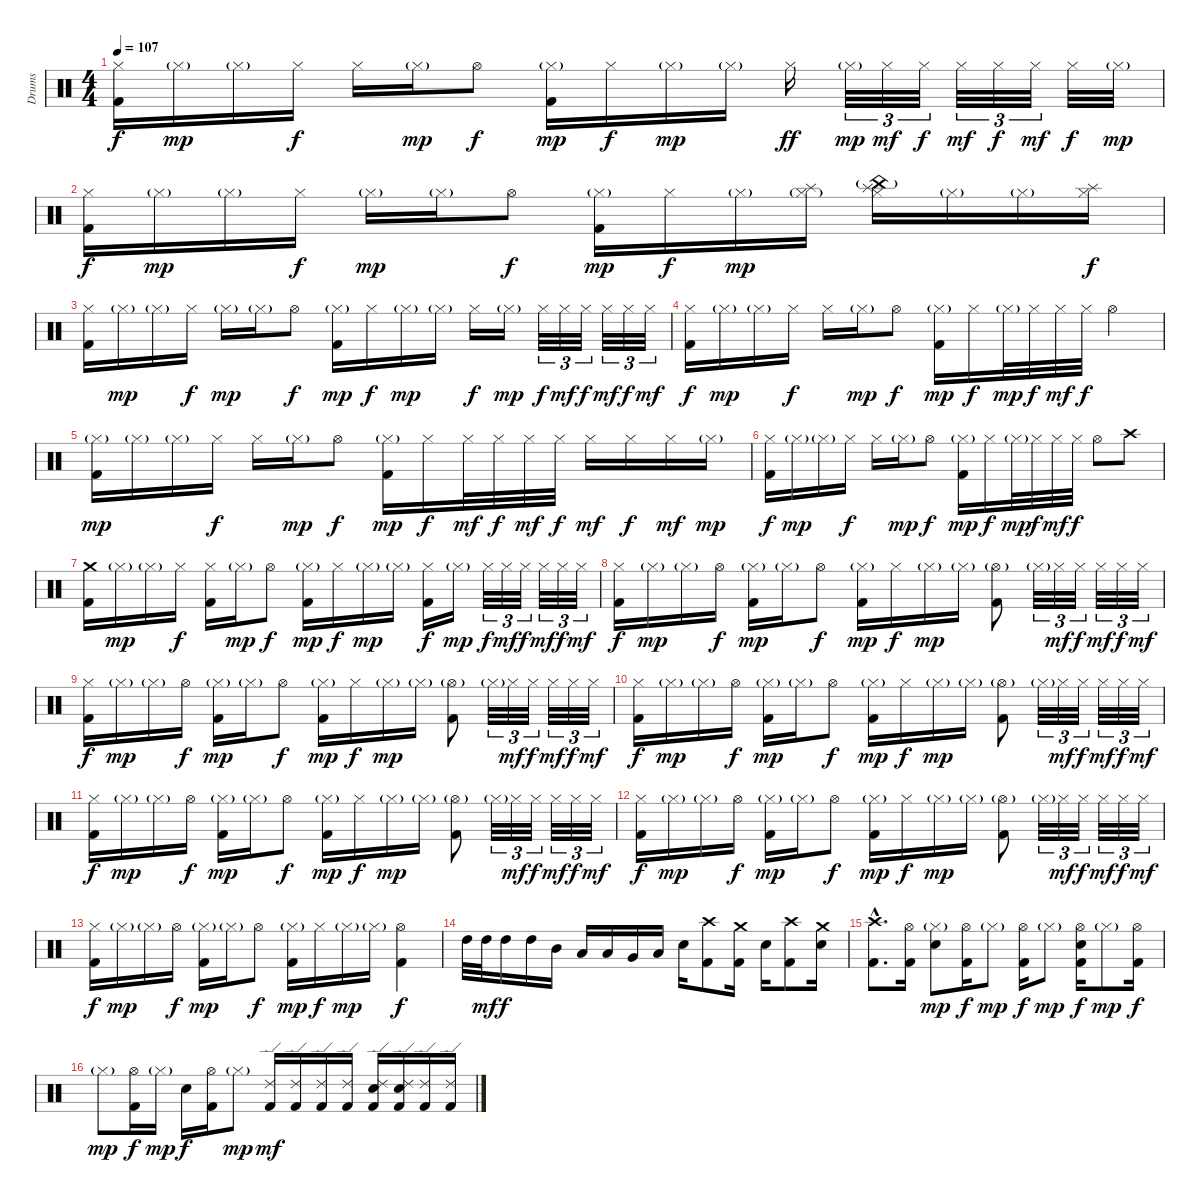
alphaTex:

\track ("Drums" "Drums") {instrument percussion}
\staff {score}
\articulation defaults
\ts (4 4)
\tempo 107
\clef neutral
\ks c
("Kick (hit) 2" "Hi-Hat (closed)").16{dy f} "Hi-Hat (closed)"{g}.16{dy mp} "Hi-Hat (closed)"{g}.16 "Hi-Hat (closed)".16{dy f} "Hi-Hat (closed)".16 "Hi-Hat (closed)"{g}.16{dy mp} "Hi-Hat (open)".8{dy f} ("Kick (hit) 2" "Hi-Hat (closed)"{g}).16{dy mp} "Hi-Hat (closed)".16{dy f} "Hi-Hat (closed)"{g}.16{dy mp} "Hi-Hat (closed)"{g}.16 "Hi-Hat (closed)".16{dy ff} "Hi-Hat (closed)"{g}.32{tu (3 2) dy mp} "Hi-Hat (closed)".32{tu (3 2) dy mf} "Hi-Hat (closed)".32{tu (3 2) dy f} "Hi-Hat (closed)".32{tu (3 2) dy mf} "Hi-Hat (closed)".32{tu (3 2) dy f} "Hi-Hat (closed)".32{tu (3 2) dy mf} "Hi-Hat (closed)".32{dy f} "Hi-Hat (closed)"{g}.32{dy mp} |
("Kick (hit) 2" "Hi-Hat (closed)").16{dy f} "Hi-Hat (closed)"{g}.16{dy mp} "Hi-Hat (closed)"{g}.16 "Hi-Hat (closed)".16{dy f} "Hi-Hat (closed)"{g}.16{dy mp} "Hi-Hat (closed)"{g}.16 "Hi-Hat (open)".8{dy f} ("Kick (hit) 2" "Hi-Hat (closed)"{g}).16{dy mp} "Hi-Hat (closed)".16{dy f} "Hi-Hat (closed)"{g}.16{dy mp} ("Hi-Hat (closed)"{g} "Splash (hit)").16 ("Hi-Hat (closed)" "Splash (hit)" "China (hit)"{g}).16 "Hi-Hat (closed)"{g}.16 "Hi-Hat (closed)"{g}.16 ("Hi-Hat (closed)" "Splash (hit)").16{dy f} |
("Kick (hit) 2" "Hi-Hat (closed)").16 "Hi-Hat (closed)"{g}.16{dy mp} "Hi-Hat (closed)"{g}.16 "Hi-Hat (closed)".16{dy f} "Hi-Hat (closed)"{g}.16{dy mp} "Hi-Hat (closed)"{g}.16 "Hi-Hat (open)".8{dy f} ("Kick (hit) 2" "Hi-Hat (closed)"{g}).16{dy mp} "Hi-Hat (closed)".16{dy f} "Hi-Hat (closed)"{g}.16{dy mp} "Hi-Hat (closed)"{g}.16 "Hi-Hat (closed)".16{dy f} "Hi-Hat (closed)"{g}.16{dy mp} "Hi-Hat (closed)".32{tu (3 2) dy f} "Hi-Hat (closed)".32{tu (3 2) dy mf} "Hi-Hat (closed)".32{tu (3 2) dy f} "Hi-Hat (closed)".32{tu (3 2) dy mf} "Hi-Hat (closed)".32{tu (3 2) dy f} "Hi-Hat (closed)".32{tu (3 2) dy mf} |
("Kick (hit) 2" "Hi-Hat (closed)").16{dy f} "Hi-Hat (closed)"{g}.16{dy mp} "Hi-Hat (closed)"{g}.16 "Hi-Hat (closed)".16{dy f} "Hi-Hat (closed)".16 "Hi-Hat (closed)"{g}.16{dy mp} "Hi-Hat (open)".8{dy f} ("Kick (hit) 2" "Hi-Hat (closed)"{g}).16{dy mp} "Hi-Hat (closed)".16{dy f} "Hi-Hat (closed)"{g}.32{dy mp} "Hi-Hat (closed)".32{dy f} "Hi-Hat (closed)".32{dy mf} "Hi-Hat (closed)".32{dy f} "Hi-Hat (open)".4 |
("Kick (hit) 2" "Hi-Hat (closed)"{g}).16{dy mp} "Hi-Hat (closed)"{g}.16 "Hi-Hat (closed)"{g}.16 "Hi-Hat (closed)".16{dy f} "Hi-Hat (closed)".16 "Hi-Hat (closed)"{g}.16{dy mp} "Hi-Hat (open)".8{dy f} ("Kick (hit) 2" "Hi-Hat (closed)"{g}).16{dy mp} "Hi-Hat (closed)".16{dy f} "Hi-Hat (closed)".32{dy mf} "Hi-Hat (closed)".32{dy f} "Hi-Hat (closed)".32{dy mf} "Hi-Hat (closed)".32{dy f} "Hi-Hat (closed)".16{dy mf} "Hi-Hat (closed)".16{dy f} "Hi-Hat (closed)".16{dy mf} "Hi-Hat (closed)"{g}.16{dy mp} |
("Kick (hit) 2" "Hi-Hat (closed)").16{dy f} "Hi-Hat (closed)"{g}.16{dy mp} "Hi-Hat (closed)"{g}.16 "Hi-Hat (closed)".16{dy f} "Hi-Hat (closed)".16 "Hi-Hat (closed)"{g}.16{dy mp} "Hi-Hat (open)".8{dy f} ("Kick (hit) 2" "Hi-Hat (closed)"{g}).16{dy mp} "Hi-Hat (closed)".16{dy f} "Hi-Hat (closed)"{g}.32{dy mp} "Hi-Hat (closed)".32{dy f} "Hi-Hat (closed)".32{dy mf} "Hi-Hat (closed)".32{dy f} "Hi-Hat (open)".8 "Crash high (hit)".8 |
("Kick (hit) 2" "Crash medium (hit)").16 "Hi-Hat (closed)"{g}.16{dy mp} "Hi-Hat (closed)"{g}.16 "Hi-Hat (closed)".16{dy f} ("Kick (hit) 2" "Hi-Hat (closed)").16 "Hi-Hat (closed)"{g}.16{dy mp} "Hi-Hat (open)".8{dy f} ("Kick (hit) 2" "Hi-Hat (closed)"{g}).16{dy mp} "Hi-Hat (closed)".16{dy f} "Hi-Hat (closed)"{g}.16{dy mp} "Hi-Hat (closed)"{g}.16 ("Kick (hit) 2" "Hi-Hat (closed)").16{dy f} "Hi-Hat (closed)"{g}.16{dy mp} "Hi-Hat (closed)".32{tu (3 2) dy f} "Hi-Hat (closed)".32{tu (3 2) dy mf} "Hi-Hat (closed)".32{tu (3 2) dy f} "Hi-Hat (closed)".32{tu (3 2) dy mf} "Hi-Hat (closed)".32{tu (3 2) dy f} "Hi-Hat (closed)".32{tu (3 2) dy mf} |
("Kick (hit) 2" "Hi-Hat (closed)").16{dy f} "Hi-Hat (closed)"{g}.16{dy mp} "Hi-Hat (closed)"{g}.16 "Hi-Hat (open)".16{dy f} ("Kick (hit) 2" "Hi-Hat (closed)"{g}).16{dy mp} "Hi-Hat (closed)"{g}.16 "Hi-Hat (open)".8{dy f} ("Kick (hit) 2" "Hi-Hat (closed)"{g}).16{dy mp} "Hi-Hat (closed)".16{dy f} "Hi-Hat (closed)"{g}.16{dy mp} "Hi-Hat (closed)"{g}.16 ("Kick (hit) 2" "Hi-Hat (open)"{g}).8 "Hi-Hat (closed)"{g}.32{tu (3 2)} "Hi-Hat (closed)".32{tu (3 2) dy mf} "Hi-Hat (closed)".32{tu (3 2) dy f} "Hi-Hat (closed)".32{tu (3 2) dy mf} "Hi-Hat (closed)".32{tu (3 2) dy f} "Hi-Hat (closed)".32{tu (3 2) dy mf} |
("Kick (hit) 2" "Hi-Hat (closed)").16{dy f} "Hi-Hat (closed)"{g}.16{dy mp} "Hi-Hat (closed)"{g}.16 "Hi-Hat (open)".16{dy f} ("Kick (hit) 2" "Hi-Hat (closed)"{g}).16{dy mp} "Hi-Hat (closed)"{g}.16 "Hi-Hat (open)".8{dy f} ("Kick (hit) 2" "Hi-Hat (closed)"{g}).16{dy mp} "Hi-Hat (closed)".16{dy f} "Hi-Hat (closed)"{g}.16{dy mp} "Hi-Hat (closed)"{g}.16 ("Kick (hit) 2" "Hi-Hat (open)"{g}).8 "Hi-Hat (closed)"{g}.32{tu (3 2)} "Hi-Hat (closed)".32{tu (3 2) dy mf} "Hi-Hat (closed)".32{tu (3 2) dy f} "Hi-Hat (closed)".32{tu (3 2) dy mf} "Hi-Hat (closed)".32{tu (3 2) dy f} "Hi-Hat (closed)".32{tu (3 2) dy mf} |
("Kick (hit) 2" "Hi-Hat (closed)").16{dy f} "Hi-Hat (closed)"{g}.16{dy mp} "Hi-Hat (closed)"{g}.16 "Hi-Hat (open)".16{dy f} ("Kick (hit) 2" "Hi-Hat (closed)"{g}).16{dy mp} "Hi-Hat (closed)"{g}.16 "Hi-Hat (open)".8{dy f} ("Kick (hit) 2" "Hi-Hat (closed)"{g}).16{dy mp} "Hi-Hat (closed)".16{dy f} "Hi-Hat (closed)"{g}.16{dy mp} "Hi-Hat (closed)"{g}.16 ("Kick (hit) 2" "Hi-Hat (open)"{g}).8 "Hi-Hat (closed)"{g}.32{tu (3 2)} "Hi-Hat (closed)".32{tu (3 2) dy mf} "Hi-Hat (closed)".32{tu (3 2) dy f} "Hi-Hat (closed)".32{tu (3 2) dy mf} "Hi-Hat (closed)".32{tu (3 2) dy f} "Hi-Hat (closed)".32{tu (3 2) dy mf} |
("Kick (hit) 2" "Hi-Hat (closed)").16{dy f} "Hi-Hat (closed)"{g}.16{dy mp} "Hi-Hat (closed)"{g}.16 "Hi-Hat (open)".16{dy f} ("Kick (hit) 2" "Hi-Hat (closed)"{g}).16{dy mp} "Hi-Hat (closed)"{g}.16 "Hi-Hat (open)".8{dy f} ("Kick (hit) 2" "Hi-Hat (closed)"{g}).16{dy mp} "Hi-Hat (closed)".16{dy f} "Hi-Hat (closed)"{g}.16{dy mp} "Hi-Hat (closed)"{g}.16 ("Kick (hit) 2" "Hi-Hat (open)"{g}).8 "Hi-Hat (closed)"{g}.32{tu (3 2)} "Hi-Hat (closed)".32{tu (3 2) dy mf} "Hi-Hat (closed)".32{tu (3 2) dy f} "Hi-Hat (closed)".32{tu (3 2) dy mf} "Hi-Hat (closed)".32{tu (3 2) dy f} "Hi-Hat (closed)".32{tu (3 2) dy mf} |
("Kick (hit) 2" "Hi-Hat (closed)").16{dy f} "Hi-Hat (closed)"{g}.16{dy mp} "Hi-Hat (closed)"{g}.16 "Hi-Hat (open)".16{dy f} ("Kick (hit) 2" "Hi-Hat (closed)"{g}).16{dy mp} "Hi-Hat (closed)"{g}.16 "Hi-Hat (open)".8{dy f} ("Kick (hit) 2" "Hi-Hat (closed)"{g}).16{dy mp} "Hi-Hat (closed)".16{dy f} "Hi-Hat (closed)"{g}.16{dy mp} "Hi-Hat (closed)"{g}.16 ("Kick (hit) 2" "Hi-Hat (open)"{g}).8 "Hi-Hat (closed)"{g}.32{tu (3 2)} "Hi-Hat (closed)".32{tu (3 2) dy mf} "Hi-Hat (closed)".32{tu (3 2) dy f} "Hi-Hat (closed)".32{tu (3 2) dy mf} "Hi-Hat (closed)".32{tu (3 2) dy f} "Hi-Hat (closed)".32{tu (3 2) dy mf} |
("Kick (hit) 2" "Hi-Hat (closed)").16{dy f} "Hi-Hat (closed)"{g}.16{dy mp} "Hi-Hat (closed)"{g}.16 "Hi-Hat (open)".16{dy f} ("Kick (hit) 2" "Hi-Hat (closed)"{g}).16{dy mp} "Hi-Hat (closed)"{g}.16 "Hi-Hat (open)".8{dy f} ("Kick (hit) 2" "Hi-Hat (closed)"{g}).16{dy mp} "Hi-Hat (closed)".16{dy f} "Hi-Hat (closed)"{g}.16{dy mp} "Hi-Hat (closed)"{g}.16 ("Kick (hit) 2" "Hi-Hat (open)").4{dy f} |
"High Tom (hit)".32 "High Tom (hit)".32{dy mf} "High Tom (hit)".16{dy f} "High Tom (hit)".16 "Mid Tom (hit)".16 "Low Tom (hit)".16 "Low Tom (hit)".16 "Very Low Tom (hit)".16 "Low Floor Tom (hit)".16 "Electric Snare (hit)".16 ("Kick (hit) 2" "Crash high (hit)").8 ("Kick (hit) 2" "Crash medium (hit)").16 "Electric Snare (hit)".16 ("Kick (hit) 2" "Crash high (hit)").8 ("Electric Snare (hit)" "Crash medium (hit)").16 |
("Kick (hit) 2"{hac} "Crash high (hit)"{hac}).8{d} ("Kick (hit) 2" "Hi-Hat (open)").16 ("Electric Snare (hit)" "Hi-Hat (closed)"{g}).8{dy mp} ("Kick (hit) 2" "Hi-Hat (open)").16{dy f} "Hi-Hat (closed)"{g}.8{dy mp} ("Kick (hit) 2" "Hi-Hat (open)").16{dy f} "Hi-Hat (closed)"{g}.8{dy mp} ("Kick (hit) 2" "Electric Snare (hit)" "Hi-Hat (open)").16{dy f} "Hi-Hat (closed)"{g}.8{dy mp} ("Kick (hit) 2" "Hi-Hat (open)").16{dy f} |
"Hi-Hat (closed)"{g}.8{dy mp} ("Kick (hit) 2" "Hi-Hat (open)").16{dy f} "Hi-Hat (closed)"{g}.16{dy mp} "Electric Snare (hit)".16{dy f} ("Kick (hit) 2" "Hi-Hat (open)").16 "Hi-Hat (closed)"{g}.8{dy mp} ("Kick (hit) 2" "Ride (edge) 2").16{dy mf} ("Kick (hit) 2" "Ride (edge) 2").16 ("Kick (hit) 2" "Ride (edge) 2").16 ("Kick (hit) 2" "Ride (edge) 2").16 ("Kick (hit) 2" "Electric Snare (hit)" "Ride (edge) 2").16 ("Kick (hit) 2" "Electric Snare (hit)" "Ride (edge) 2").16 ("Kick (hit) 2" "Ride (edge) 2").16 ("Kick (hit) 2" "Ride (edge) 2").16
